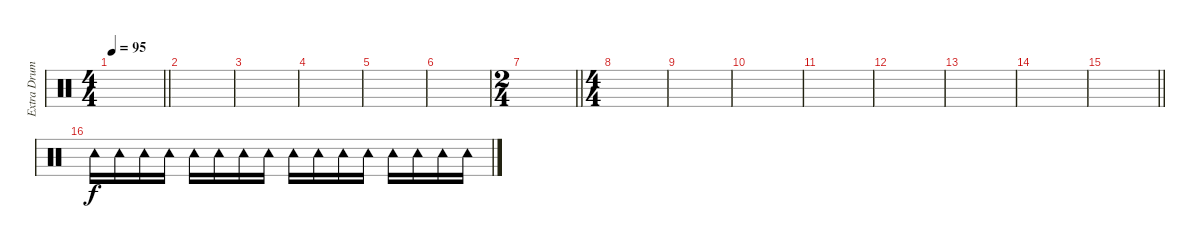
\track ("Extra Drums" "Extra Drum") {instrument percussion}
\staff {score}
\articulation defaults
\ts (4 4)
\tempo 95
\clef neutral
\barLineRight lightlight
\ks c
|
|
|
|
|
|
\ts (2 4)
\barLineRight lightlight
|
\ts (4 4)
|
|
|
|
|
|
|
\barLineRight lightlight
|
"Tambourine (hit)".16 "Tambourine (hit)".16 "Tambourine (hit)".16 "Tambourine (hit)".16 "Tambourine (hit)".16 "Tambourine (hit)".16 "Tambourine (hit)".16 "Tambourine (hit)".16 "Tambourine (hit)".16 "Tambourine (hit)".16 "Tambourine (hit)".16 "Tambourine (hit)".16 "Tambourine (hit)".16 "Tambourine (hit)".16 "Tambourine (hit)".16 "Tambourine (hit)".16
